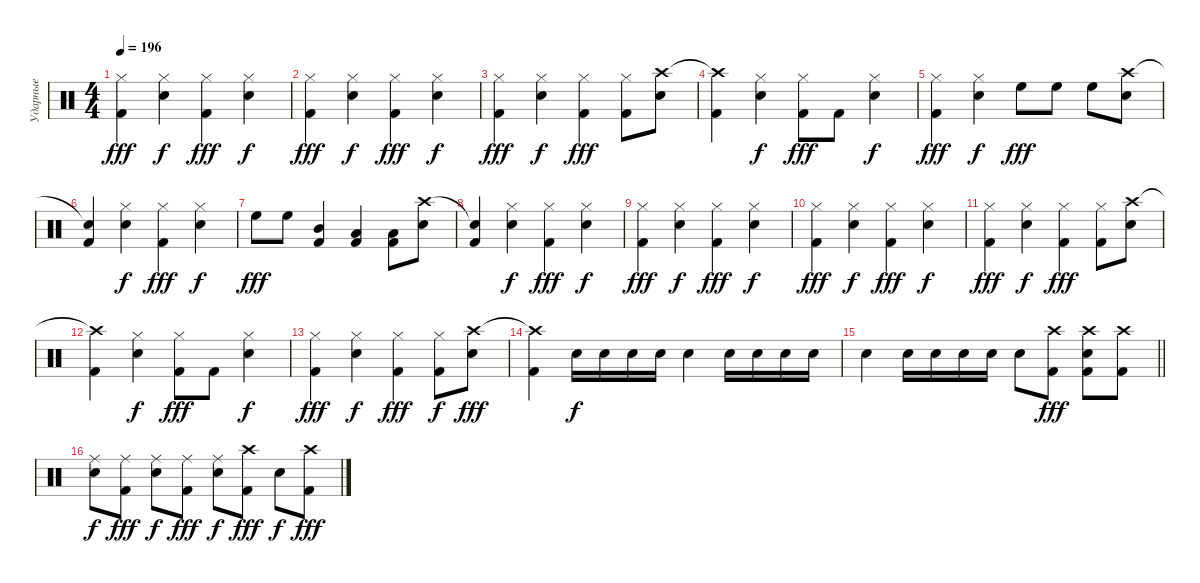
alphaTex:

\track ("Ударные" "Ударные") {instrument percussion}
\staff {score}
\articulation defaults
\ts (4 4)
\tempo 196
\clef neutral
\ks c
("Kick (hit) 2" "Hi-Hat (closed)").4{dy fff} ("Snare (hit) 2" "Hi-Hat (closed)").4{dy f} ("Kick (hit) 2" "Hi-Hat (closed)").4{dy fff} ("Snare (hit) 2" "Hi-Hat (closed)").4{dy f} |
("Kick (hit) 2" "Hi-Hat (closed)").4{dy fff} ("Snare (hit) 2" "Hi-Hat (closed)").4{dy f} ("Kick (hit) 2" "Hi-Hat (closed)").4{dy fff} ("Snare (hit) 2" "Hi-Hat (closed)").4{dy f} |
("Kick (hit) 2" "Hi-Hat (closed)").4{dy fff} ("Snare (hit) 2" "Hi-Hat (closed)").4{dy f} ("Kick (hit) 2" "Hi-Hat (closed)").4{dy fff} ("Kick (hit) 2" "Hi-Hat (closed)").8 ("Snare (hit) 2" "Crash high (hit)").8 |
("Kick (hit) 2" "Crash high (hit)"{t}).4 ("Snare (hit) 2" "Hi-Hat (closed)").4{dy f} ("Kick (hit) 2" "Hi-Hat (closed)").8{dy fff} "Kick (hit) 2".8 ("Snare (hit) 2" "Hi-Hat (closed)").4{dy f} |
("Kick (hit) 2" "Hi-Hat (closed)").4{dy fff} ("Snare (hit) 2" "Hi-Hat (closed)").4{dy f} "High Floor Tom (hit)".8{dy fff} "High Floor Tom (hit)".8 "High Floor Tom (hit)".8 ("Snare (hit) 2" "Crash high (hit)").8 |
("Kick (hit) 2" "Snare (hit)"{t}).4 ("Snare (hit) 2" "Hi-Hat (closed)").4{dy f} ("Kick (hit) 2" "Hi-Hat (closed)").4{dy fff} ("Snare (hit) 2" "Hi-Hat (closed)").4{dy f} |
"High Floor Tom (hit)".8{dy fff} "High Floor Tom (hit)".8 ("Kick (hit) 2" "Mid Tom (hit)").4 ("Kick (hit) 2" "Low Tom (hit)").4 ("Kick (hit) 2" "Low Tom (hit)").8 ("Snare (hit) 2" "Crash high (hit)").8 |
("Kick (hit) 2" "Snare (hit)"{t}).4 ("Snare (hit) 2" "Hi-Hat (closed)").4{dy f} ("Kick (hit) 2" "Hi-Hat (closed)").4{dy fff} ("Snare (hit) 2" "Hi-Hat (closed)").4{dy f} |
("Kick (hit) 2" "Hi-Hat (closed)").4{dy fff} ("Snare (hit) 2" "Hi-Hat (closed)").4{dy f} ("Kick (hit) 2" "Hi-Hat (closed)").4{dy fff} ("Snare (hit) 2" "Hi-Hat (closed)").4{dy f} |
("Kick (hit) 2" "Hi-Hat (closed)").4{dy fff} ("Snare (hit) 2" "Hi-Hat (closed)").4{dy f} ("Kick (hit) 2" "Hi-Hat (closed)").4{dy fff} ("Snare (hit) 2" "Hi-Hat (closed)").4{dy f} |
("Kick (hit) 2" "Hi-Hat (closed)").4{dy fff} ("Snare (hit) 2" "Hi-Hat (closed)").4{dy f} ("Kick (hit) 2" "Hi-Hat (closed)").4{dy fff} ("Kick (hit) 2" "Hi-Hat (closed)").8 ("Snare (hit) 2" "Crash high (hit)").8 |
("Kick (hit) 2" "Crash high (hit)"{t}).4 ("Snare (hit) 2" "Hi-Hat (closed)").4{dy f} ("Kick (hit) 2" "Hi-Hat (closed)").8{dy fff} "Kick (hit) 2".8 ("Snare (hit) 2" "Hi-Hat (closed)").4{dy f} |
("Kick (hit) 2" "Hi-Hat (closed)").4{dy fff} ("Snare (hit) 2" "Hi-Hat (closed)").4{dy f} ("Kick (hit) 2" "Hi-Hat (closed)").4{dy fff} ("Kick (hit) 2" "Hi-Hat (closed)").8{dy f} ("Snare (hit) 2" "Crash high (hit)").8{dy fff} |
("Kick (hit) 2" "Crash high (hit)"{t}).4 "Snare (hit) 2".16{dy f} "Snare (hit) 2".16 "Snare (hit) 2".16 "Snare (hit) 2".16 "Snare (hit) 2".4 "Snare (hit) 2".16 "Snare (hit) 2".16 "Snare (hit) 2".16 "Snare (hit) 2".16 |
\barLineRight lightlight "Snare (hit) 2".4 "Snare (hit) 2".16 "Snare (hit) 2".16 "Snare (hit) 2".16 "Snare (hit) 2".16 "Snare (hit) 2".8
("Kick (hit) 2" "Crash high (hit)").8{dy fff} ("Kick (hit) 2" "Snare (hit) 2" "Crash high (hit)").8 ("Kick (hit) 2" "Crash high (hit)").8 |
("Snare (hit) 2" "Ride (middle)").8{dy f} ("Kick (hit) 2" "Ride (middle)").8{dy fff} ("Snare (hit) 2" "Ride (middle)").8{dy f} ("Kick (hit) 2" "Ride (middle)").8{dy fff} ("Snare (hit) 2" "Ride (middle)").8{dy f} ("Kick (hit) 2" "Crash high (hit)").8{dy fff} "Snare (hit) 2".8{dy f} ("Kick (hit) 2" "Crash high (hit)").8{dy fff}
